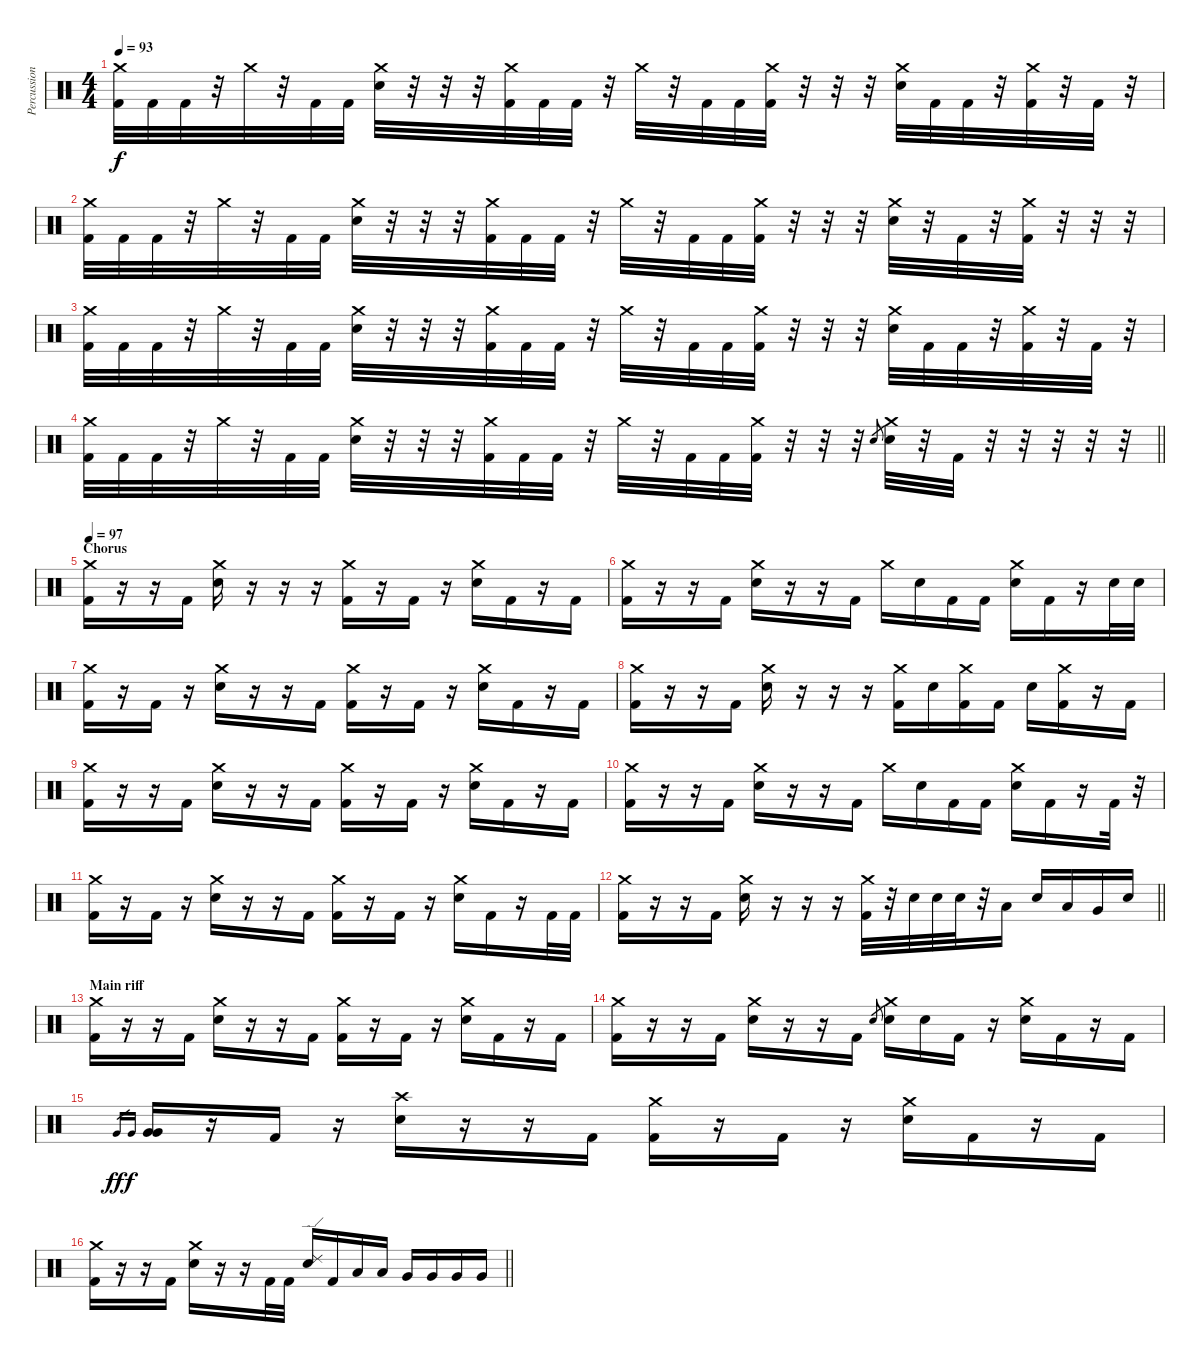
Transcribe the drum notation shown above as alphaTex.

\track ("Percussion" "Percussion") {instrument percussion}
\staff {score}
\articulation defaults
\ts (4 4)
\section ("" "")
\tempo 93
\clef neutral
\ks c
("Crash medium (hit)" "Kick (hit) 2").32{dy f} "Kick (hit) 2".32 "Kick (hit) 2".32 r.32 "Crash medium (hit)".32 r.32 "Kick (hit) 2".32 "Kick (hit) 2".32 ("Crash medium (hit)" "Electric Snare (hit)").32 r.32 r.32 r.32 ("Crash medium (hit)" "Kick (hit) 2").32 "Kick (hit) 2".32 "Kick (hit) 2".32 r.32 "Crash medium (hit)".32 r.32 "Kick (hit) 2".32 "Kick (hit) 2".32 ("Crash medium (hit)" "Kick (hit) 2").32 r.32 r.32 r.32 ("Crash medium (hit)" "Electric Snare (hit)").32 "Kick (hit) 2".32 "Kick (hit) 2".32 r.32 ("Crash medium (hit)" "Kick (hit) 2").32 r.32 "Kick (hit) 2".32 r.32 |
("Crash medium (hit)" "Kick (hit) 2").32 "Kick (hit) 2".32 "Kick (hit) 2".32 r.32 "Crash medium (hit)".32 r.32 "Kick (hit) 2".32 "Kick (hit) 2".32 ("Crash medium (hit)" "Electric Snare (hit)").32 r.32 r.32 r.32 ("Crash medium (hit)" "Kick (hit) 2").32 "Kick (hit) 2".32 "Kick (hit) 2".32 r.32 "Crash medium (hit)".32 r.32 "Kick (hit) 2".32 "Kick (hit) 2".32 ("Crash medium (hit)" "Kick (hit) 2").32 r.32 r.32 r.32 ("Crash medium (hit)" "Electric Snare (hit)").32 r.32 "Kick (hit) 2".32 r.32 ("Crash medium (hit)" "Kick (hit) 2").32 r.32 r.32 r.32 |
("Crash medium (hit)" "Kick (hit) 2").32 "Kick (hit) 2".32 "Kick (hit) 2".32 r.32 "Crash medium (hit)".32 r.32 "Kick (hit) 2".32 "Kick (hit) 2".32 ("Crash medium (hit)" "Electric Snare (hit)").32 r.32 r.32 r.32 ("Crash medium (hit)" "Kick (hit) 2").32 "Kick (hit) 2".32 "Kick (hit) 2".32 r.32 "Crash medium (hit)".32 r.32 "Kick (hit) 2".32 "Kick (hit) 2".32 ("Crash medium (hit)" "Kick (hit) 2").32 r.32 r.32 r.32 ("Crash medium (hit)" "Electric Snare (hit)").32 "Kick (hit) 2".32 "Kick (hit) 2".32 r.32 ("Crash medium (hit)" "Kick (hit) 2").32 r.32 "Kick (hit) 2".32 r.32 |
\barLineRight lightlight
("Crash medium (hit)" "Kick (hit) 2").32 "Kick (hit) 2".32 "Kick (hit) 2".32 r.32 "Crash medium (hit)".32 r.32 "Kick (hit) 2".32 "Kick (hit) 2".32 ("Crash medium (hit)" "Electric Snare (hit)").32 r.32 r.32 r.32 ("Crash medium (hit)" "Kick (hit) 2").32 "Kick (hit) 2".32 "Kick (hit) 2".32 r.32 "Crash medium (hit)".32 r.32 "Kick (hit) 2".32 "Kick (hit) 2".32 ("Crash medium (hit)" "Kick (hit) 2").32 r.32 r.32 r.32 "Electric Snare (hit)".8{gr} ("Crash medium (hit)" "Electric Snare (hit)").32 r.32 "Kick (hit) 2".32 r.32 r.32 r.32 r.32 r.32 |
\section ("" "Chorus")
\tempo 97
("Crash medium (hit)" "Kick (hit) 2").16 r.16 r.16 "Kick (hit) 2".16 ("Crash medium (hit)" "Electric Snare (hit)").16 r.16 r.16 r.16 ("Crash medium (hit)" "Kick (hit) 2").16 r.16 "Kick (hit) 2".16 r.16 ("Crash medium (hit)" "Electric Snare (hit)").16 "Kick (hit) 2".16 r.16 "Kick (hit) 2".16 |
("Crash medium (hit)" "Kick (hit) 2").16 r.16 r.16 "Kick (hit) 2".16 ("Crash medium (hit)" "Electric Snare (hit)").16 r.16 r.16 "Kick (hit) 2".16 "Crash medium (hit)".16 "Electric Snare (hit)".16 "Kick (hit) 2".16 "Kick (hit) 2".16 ("Crash medium (hit)" "Electric Snare (hit)").16 "Kick (hit) 2".16 r.16 "Electric Snare (hit)".32 "Electric Snare (hit)".32 |
("Crash medium (hit)" "Kick (hit) 2").16 r.16 "Kick (hit) 2".16 r.16 ("Crash medium (hit)" "Electric Snare (hit)").16 r.16 r.16 "Kick (hit) 2".16 ("Crash medium (hit)" "Kick (hit) 2").16 r.16 "Kick (hit) 2".16 r.16 ("Crash medium (hit)" "Electric Snare (hit)").16 "Kick (hit) 2".16 r.16 "Kick (hit) 2".16 |
("Crash medium (hit)" "Kick (hit) 2").16 r.16 r.16 "Kick (hit) 2".16 ("Crash medium (hit)" "Electric Snare (hit)").16 r.16 r.16 r.16 ("Crash medium (hit)" "Kick (hit) 2").16 "Electric Snare (hit)".16 ("Crash medium (hit)" "Kick (hit) 2").16 "Kick (hit) 2".16 "Electric Snare (hit)".16 ("Crash medium (hit)" "Kick (hit) 2").16 r.16 "Kick (hit) 2".16 |
("Crash medium (hit)" "Kick (hit) 2").16 r.16 r.16 "Kick (hit) 2".16 ("Crash medium (hit)" "Electric Snare (hit)").16 r.16 r.16 "Kick (hit) 2".16 ("Crash medium (hit)" "Kick (hit) 2").16 r.16 "Kick (hit) 2".16 r.16 ("Crash medium (hit)" "Electric Snare (hit)").16 "Kick (hit) 2".16 r.16 "Kick (hit) 2".16 |
("Crash medium (hit)" "Kick (hit) 2").16 r.16 r.16 "Kick (hit) 2".16 ("Crash medium (hit)" "Electric Snare (hit)").16 r.16 r.16 "Kick (hit) 2".16 "Crash medium (hit)".16 "Electric Snare (hit)".16 "Kick (hit) 2".16 "Kick (hit) 2".16 ("Crash medium (hit)" "Electric Snare (hit)").16 "Kick (hit) 2".16 r.16 "Kick (hit) 2".32 r.32 |
("Crash medium (hit)" "Kick (hit) 2").16 r.16 "Kick (hit) 2".16 r.16 ("Crash medium (hit)" "Electric Snare (hit)").16 r.16 r.16 "Kick (hit) 2".16 ("Crash medium (hit)" "Kick (hit) 2").16 r.16 "Kick (hit) 2".16 r.16 ("Crash medium (hit)" "Electric Snare (hit)").16 "Kick (hit) 2".16 r.16 "Kick (hit) 2".32 "Kick (hit) 2".32 |
\barLineRight lightlight
("Crash medium (hit)" "Kick (hit) 2").16 r.16 r.16 "Kick (hit) 2".16 ("Crash medium (hit)" "Electric Snare (hit)").16 r.16 r.16 r.16 ("Crash medium (hit)" "Kick (hit) 2").32 r.32 "Electric Snare (hit)".32 "Electric Snare (hit)".32 "Electric Snare (hit)".32 r.32 "Low Tom (hit)".16 "Electric Snare (hit)".16 "Low Tom (hit)".16 "Very Low Tom (hit)".16 "Electric Snare (hit)".16 |
\section ("" "Main riff")
("Crash medium (hit)" "Kick (hit) 2").16 r.16 r.16 "Kick (hit) 2".16 ("Crash medium (hit)" "Electric Snare (hit)").16 r.16 r.16 "Kick (hit) 2".16 ("Crash medium (hit)" "Kick (hit) 2").16 r.16 "Kick (hit) 2".16 r.16 ("Crash medium (hit)" "Electric Snare (hit)").16 "Kick (hit) 2".16 r.16 "Kick (hit) 2".16 |
("Crash medium (hit)" "Kick (hit) 2").16 r.16 r.16 "Kick (hit) 2".16 ("Crash medium (hit)" "Electric Snare (hit)").16 r.16 r.16 "Kick (hit) 2".16 "Electric Snare (hit)".8{gr} ("Crash medium (hit)" "Electric Snare (hit)").16 "Electric Snare (hit)".16 "Kick (hit) 2".16 r.16 ("Crash medium (hit)" "Electric Snare (hit)").16 "Kick (hit) 2".16 r.16 "Kick (hit) 2".16 |
"Very Low Tom (hit)".16{gr dy ff} "Very Low Tom (hit)".16{gr dy f} ("Very Low Tom (hit)" "Very Low Tom (hit)").16 r.16 "Kick (hit) 2".16 r.16 ("Crash high (hit)" "Electric Snare (hit)").16 r.16 r.16 "Kick (hit) 2".16 ("Crash medium (hit)" "Kick (hit) 2").16 r.16 "Kick (hit) 2".16 r.16 ("Crash medium (hit)" "Electric Snare (hit)").16 "Kick (hit) 2".16 r.16 "Kick (hit) 2".16 |
\barLineRight lightlight
("Crash medium (hit)" "Kick (hit) 2").16 r.16 r.16 "Kick (hit) 2".16 ("Crash medium (hit)" "Electric Snare (hit)").16 r.16 r.16 "Kick (hit) 2".32 "Kick (hit) 2".32 ("Ride (edge) 2" "Electric Snare (hit)").16 "Kick (hit) 2".16 "Low Tom (hit)".16 "Low Tom (hit)".16 "Very Low Tom (hit)".16 "Very Low Tom (hit)".16 "Very Low Tom (hit)".16 "Very Low Tom (hit)".16
